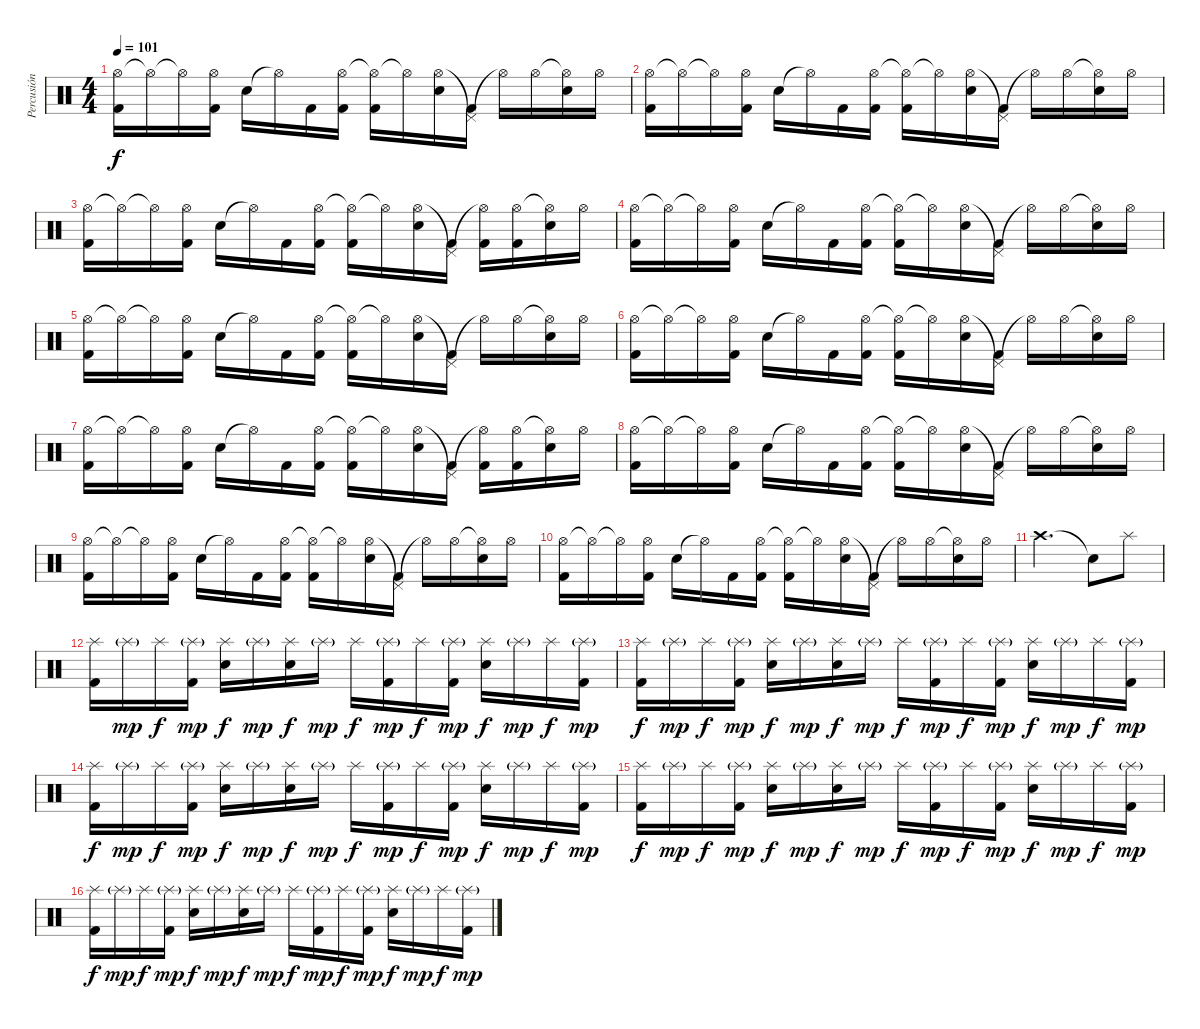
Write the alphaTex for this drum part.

\track ("Percusión" "Percusión") {instrument percussion}
\staff {score}
\articulation defaults
\ts (4 4)
\tempo 101
\clef neutral
\ks c
("Hi-Hat (open)" "Kick (hit) 2").16{dy f} "Hi-Hat (open)"{t}.16 "Hi-Hat (open)"{t}.16 ("Hi-Hat (open)" "Kick (hit) 2").16 "Snare (hit) 2".16 "Hi-Hat (open)"{t}.16 "Kick (hit) 2".16 ("Hi-Hat (open)" "Kick (hit) 2").16 ("Hi-Hat (open)"{t} "Kick (hit) 2").16 "Hi-Hat (open)"{t}.16 ("Hi-Hat (open)" "Snare (hit) 2").16 ("Pedal Hi-Hat (hit)"{t} "Kick (hit) 2").16 "Hi-Hat (open)"{t}.16 "Hi-Hat (open)".16 ("Hi-Hat (open)"{t} "Snare (hit) 2").16 "Hi-Hat (open)".16 |
("Hi-Hat (open)" "Kick (hit) 2").16 "Hi-Hat (open)"{t}.16 "Hi-Hat (open)"{t}.16 ("Hi-Hat (open)" "Kick (hit) 2").16 "Snare (hit) 2".16 "Hi-Hat (open)"{t}.16 "Kick (hit) 2".16 ("Hi-Hat (open)" "Kick (hit) 2").16 ("Hi-Hat (open)"{t} "Kick (hit) 2").16 "Hi-Hat (open)"{t}.16 ("Hi-Hat (open)" "Snare (hit) 2").16 ("Pedal Hi-Hat (hit)"{t} "Kick (hit) 2").16 "Hi-Hat (open)"{t}.16 "Hi-Hat (open)".16 ("Hi-Hat (open)"{t} "Snare (hit) 2").16 "Hi-Hat (open)".16 |
("Hi-Hat (open)" "Kick (hit) 2").16 "Hi-Hat (open)"{t}.16 "Hi-Hat (open)"{t}.16 ("Hi-Hat (open)" "Kick (hit) 2").16 "Snare (hit) 2".16 "Hi-Hat (open)"{t}.16 "Kick (hit) 2".16 ("Hi-Hat (open)" "Kick (hit) 2").16 ("Hi-Hat (open)"{t} "Kick (hit) 2").16 "Hi-Hat (open)"{t}.16 ("Hi-Hat (open)" "Snare (hit) 2").16 ("Pedal Hi-Hat (hit)"{t} "Kick (hit) 2").16 ("Hi-Hat (open)"{t} "Kick (hit) 2").16 ("Hi-Hat (open)" "Kick (hit) 2").16 ("Hi-Hat (open)"{t} "Snare (hit) 2").16 "Hi-Hat (open)".16 |
("Hi-Hat (open)" "Kick (hit) 2").16 "Hi-Hat (open)"{t}.16 "Hi-Hat (open)"{t}.16 ("Hi-Hat (open)" "Kick (hit) 2").16 "Snare (hit) 2".16 "Hi-Hat (open)"{t}.16 "Kick (hit) 2".16 ("Hi-Hat (open)" "Kick (hit) 2").16 ("Hi-Hat (open)"{t} "Kick (hit) 2").16 "Hi-Hat (open)"{t}.16 ("Hi-Hat (open)" "Snare (hit) 2").16 ("Pedal Hi-Hat (hit)"{t} "Kick (hit) 2").16 "Hi-Hat (open)"{t}.16 "Hi-Hat (open)".16 ("Hi-Hat (open)"{t} "Snare (hit) 2").16 "Hi-Hat (open)".16 |
("Hi-Hat (open)" "Kick (hit) 2").16 "Hi-Hat (open)"{t}.16 "Hi-Hat (open)"{t}.16 ("Hi-Hat (open)" "Kick (hit) 2").16 "Snare (hit) 2".16 "Hi-Hat (open)"{t}.16 "Kick (hit) 2".16 ("Hi-Hat (open)" "Kick (hit) 2").16 ("Hi-Hat (open)"{t} "Kick (hit) 2").16 "Hi-Hat (open)"{t}.16 ("Hi-Hat (open)" "Snare (hit) 2").16 ("Pedal Hi-Hat (hit)"{t} "Kick (hit) 2").16 "Hi-Hat (open)"{t}.16 "Hi-Hat (open)".16 ("Hi-Hat (open)"{t} "Snare (hit) 2").16 "Hi-Hat (open)".16 |
("Hi-Hat (open)" "Kick (hit) 2").16 "Hi-Hat (open)"{t}.16 "Hi-Hat (open)"{t}.16 ("Hi-Hat (open)" "Kick (hit) 2").16 "Snare (hit) 2".16 "Hi-Hat (open)"{t}.16 "Kick (hit) 2".16 ("Hi-Hat (open)" "Kick (hit) 2").16 ("Hi-Hat (open)"{t} "Kick (hit) 2").16 "Hi-Hat (open)"{t}.16 ("Hi-Hat (open)" "Snare (hit) 2").16 ("Pedal Hi-Hat (hit)"{t} "Kick (hit) 2").16 "Hi-Hat (open)"{t}.16 "Hi-Hat (open)".16 ("Hi-Hat (open)"{t} "Snare (hit) 2").16 "Hi-Hat (open)".16 |
("Hi-Hat (open)" "Kick (hit) 2").16 "Hi-Hat (open)"{t}.16 "Hi-Hat (open)"{t}.16 ("Hi-Hat (open)" "Kick (hit) 2").16 "Snare (hit) 2".16 "Hi-Hat (open)"{t}.16 "Kick (hit) 2".16 ("Hi-Hat (open)" "Kick (hit) 2").16 ("Hi-Hat (open)"{t} "Kick (hit) 2").16 "Hi-Hat (open)"{t}.16 ("Hi-Hat (open)" "Snare (hit) 2").16 ("Pedal Hi-Hat (hit)"{t} "Kick (hit) 2").16 ("Hi-Hat (open)"{t} "Kick (hit) 2").16 ("Hi-Hat (open)" "Kick (hit) 2").16 ("Hi-Hat (open)"{t} "Snare (hit) 2").16 "Hi-Hat (open)".16 |
("Hi-Hat (open)" "Kick (hit) 2").16 "Hi-Hat (open)"{t}.16 "Hi-Hat (open)"{t}.16 ("Hi-Hat (open)" "Kick (hit) 2").16 "Snare (hit) 2".16 "Hi-Hat (open)"{t}.16 "Kick (hit) 2".16 ("Hi-Hat (open)" "Kick (hit) 2").16 ("Hi-Hat (open)"{t} "Kick (hit) 2").16 "Hi-Hat (open)"{t}.16 ("Hi-Hat (open)" "Snare (hit) 2").16 ("Pedal Hi-Hat (hit)"{t} "Kick (hit) 2").16 "Hi-Hat (open)"{t}.16 "Hi-Hat (open)".16 ("Hi-Hat (open)"{t} "Snare (hit) 2").16 "Hi-Hat (open)".16 |
("Hi-Hat (open)" "Kick (hit) 2").16 "Hi-Hat (open)"{t}.16 "Hi-Hat (open)"{t}.16 ("Hi-Hat (open)" "Kick (hit) 2").16 "Snare (hit) 2".16 "Hi-Hat (open)"{t}.16 "Kick (hit) 2".16 ("Hi-Hat (open)" "Kick (hit) 2").16 ("Hi-Hat (open)"{t} "Kick (hit) 2").16 "Hi-Hat (open)"{t}.16 ("Hi-Hat (open)" "Snare (hit) 2").16 ("Pedal Hi-Hat (hit)"{t} "Kick (hit) 2").16 "Hi-Hat (open)"{t}.16 "Hi-Hat (open)".16 ("Hi-Hat (open)"{t} "Snare (hit) 2").16 "Hi-Hat (open)".16 |
("Hi-Hat (open)" "Kick (hit) 2").16 "Hi-Hat (open)"{t}.16 "Hi-Hat (open)"{t}.16 ("Hi-Hat (open)" "Kick (hit) 2").16 "Snare (hit) 2".16 "Hi-Hat (open)"{t}.16 "Kick (hit) 2".16 ("Hi-Hat (open)" "Kick (hit) 2").16 ("Hi-Hat (open)"{t} "Kick (hit) 2").16 "Hi-Hat (open)"{t}.16 ("Hi-Hat (open)" "Snare (hit) 2").16 ("Pedal Hi-Hat (hit)"{t} "Kick (hit) 2").16 "Hi-Hat (open)"{t}.16 "Hi-Hat (open)".16 ("Hi-Hat (open)"{t} "Snare (hit) 2").16 "Hi-Hat (open)".16 |
"Crash high (hit)".2{d} "Snare (hit)"{t}.8 "Splash (hit)".8 |
("Splash (hit)" "Kick (hit) 2").16 "Splash (hit)"{g}.16{dy mp} "Splash (hit)".16{dy f} ("Splash (hit)"{g} "Kick (hit) 2").16{dy mp} ("Splash (hit)" "Snare (hit) 2").16{dy f} "Splash (hit)"{g}.16{dy mp} ("Splash (hit)" "Snare (hit) 2").16{dy f} "Splash (hit)"{g}.16{dy mp} "Splash (hit)".16{dy f} ("Splash (hit)"{g} "Kick (hit) 2").16{dy mp} "Splash (hit)".16{dy f} ("Splash (hit)"{g} "Kick (hit) 2").16{dy mp} ("Splash (hit)" "Snare (hit) 2").16{dy f} "Splash (hit)"{g}.16{dy mp} "Splash (hit)".16{dy f} ("Splash (hit)"{g} "Kick (hit) 2").16{dy mp} |
("Splash (hit)" "Kick (hit) 2").16{dy f} "Splash (hit)"{g}.16{dy mp} "Splash (hit)".16{dy f} ("Splash (hit)"{g} "Kick (hit) 2").16{dy mp} ("Splash (hit)" "Snare (hit) 2").16{dy f} "Splash (hit)"{g}.16{dy mp} ("Splash (hit)" "Snare (hit) 2").16{dy f} "Splash (hit)"{g}.16{dy mp} "Splash (hit)".16{dy f} ("Splash (hit)"{g} "Kick (hit) 2").16{dy mp} "Splash (hit)".16{dy f} ("Splash (hit)"{g} "Kick (hit) 2").16{dy mp} ("Splash (hit)" "Snare (hit) 2").16{dy f} "Splash (hit)"{g}.16{dy mp} "Splash (hit)".16{dy f} ("Splash (hit)"{g} "Kick (hit) 2").16{dy mp} |
("Splash (hit)" "Kick (hit) 2").16{dy f} "Splash (hit)"{g}.16{dy mp} "Splash (hit)".16{dy f} ("Splash (hit)"{g} "Kick (hit) 2").16{dy mp} ("Splash (hit)" "Snare (hit) 2").16{dy f} "Splash (hit)"{g}.16{dy mp} ("Splash (hit)" "Snare (hit) 2").16{dy f} "Splash (hit)"{g}.16{dy mp} "Splash (hit)".16{dy f} ("Splash (hit)"{g} "Kick (hit) 2").16{dy mp} "Splash (hit)".16{dy f} ("Splash (hit)"{g} "Kick (hit) 2").16{dy mp} ("Splash (hit)" "Snare (hit) 2").16{dy f} "Splash (hit)"{g}.16{dy mp} "Splash (hit)".16{dy f} ("Splash (hit)"{g} "Kick (hit) 2").16{dy mp} |
("Splash (hit)" "Kick (hit) 2").16{dy f} "Splash (hit)"{g}.16{dy mp} "Splash (hit)".16{dy f} ("Splash (hit)"{g} "Kick (hit) 2").16{dy mp} ("Splash (hit)" "Snare (hit) 2").16{dy f} "Splash (hit)"{g}.16{dy mp} ("Splash (hit)" "Snare (hit) 2").16{dy f} "Splash (hit)"{g}.16{dy mp} "Splash (hit)".16{dy f} ("Splash (hit)"{g} "Kick (hit) 2").16{dy mp} "Splash (hit)".16{dy f} ("Splash (hit)"{g} "Kick (hit) 2").16{dy mp} ("Splash (hit)" "Snare (hit) 2").16{dy f} "Splash (hit)"{g}.16{dy mp} "Splash (hit)".16{dy f} ("Splash (hit)"{g} "Kick (hit) 2").16{dy mp} |
("Splash (hit)" "Kick (hit) 2").16{dy f} "Splash (hit)"{g}.16{dy mp} "Splash (hit)".16{dy f} ("Splash (hit)"{g} "Kick (hit) 2").16{dy mp} ("Splash (hit)" "Snare (hit) 2").16{dy f} "Splash (hit)"{g}.16{dy mp} ("Splash (hit)" "Snare (hit) 2").16{dy f} "Splash (hit)"{g}.16{dy mp} "Splash (hit)".16{dy f} ("Splash (hit)"{g} "Kick (hit) 2").16{dy mp} "Splash (hit)".16{dy f} ("Splash (hit)"{g} "Kick (hit) 2").16{dy mp} ("Splash (hit)" "Snare (hit) 2").16{dy f} "Splash (hit)"{g}.16{dy mp} "Splash (hit)".16{dy f} ("Splash (hit)"{g} "Kick (hit) 2").16{dy mp}
